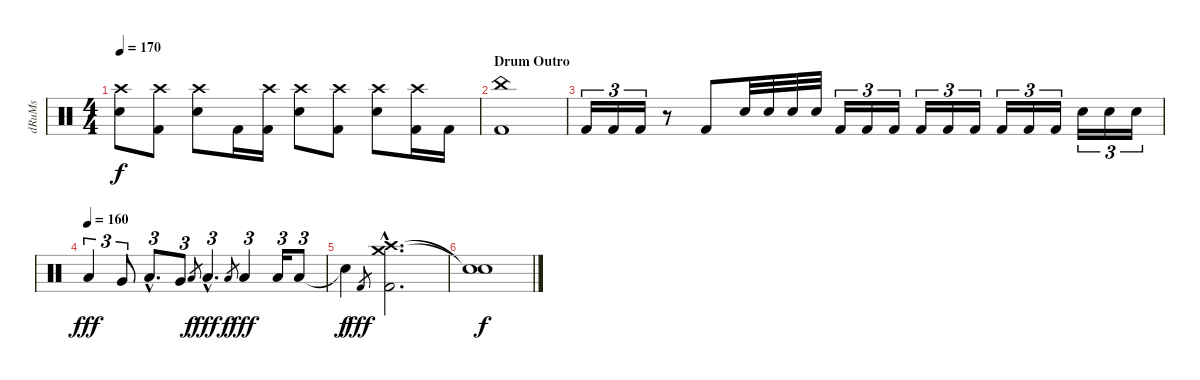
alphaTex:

\track ("dRuMs" "dRuMs") {instrument percussion}
\staff {score}
\articulation defaults
\ts (4 4)
\tempo 170
\clef neutral
\ks c
("Crash high (hit)" "Electric Snare (hit)").8{dy f} ("Crash high (hit)" "Kick (hit) 2").8 ("Crash high (hit)" "Electric Snare (hit)").8 "Kick (hit) 2".16 ("Crash high (hit)" "Kick (hit) 2").16 ("Crash high (hit)" "Electric Snare (hit)").8 ("Crash high (hit)" "Kick (hit) 2").8 ("Crash high (hit)" "Electric Snare (hit)").8 ("Crash high (hit)" "Kick (hit) 2").16 "Kick (hit) 2".16 |
\section ("" "Drum Outro")
("China (hit)" "Kick (hit) 2").1 |
"Kick (hit) 2".16{tu (3 2)} "Kick (hit) 2".16{tu (3 2)} "Kick (hit) 2".16{tu (3 2)} r.8 "Kick (hit) 2".8 "Electric Snare (hit)".32 "Electric Snare (hit)".32 "Electric Snare (hit)".32 "Electric Snare (hit)".32 "Kick (hit) 2".16{tu (3 2)} "Kick (hit) 2".16{tu (3 2)} "Kick (hit) 2".16{tu (3 2)} "Kick (hit) 2".16{tu (3 2)} "Kick (hit) 2".16{tu (3 2)} "Kick (hit) 2".16{tu (3 2)} "Kick (hit) 2".16{tu (3 2)} "Kick (hit) 2".16{tu (3 2)} "Kick (hit) 2".16{tu (3 2)} "Electric Snare (hit)".16{tu (3 2)} "Electric Snare (hit)".16{tu (3 2)} "Electric Snare (hit)".16{tu (3 2)} |
\tempo (160)
"Low Tom (hit)".4{tu (3 2) dy fff} "Very Low Tom (hit)".8{tu (3 2)} "Low Tom (hit)"{hac}.8{d tu (3 2)} "Very Low Tom (hit)".8{tu (3 2)} "Low Floor Tom (hit)".8{gr dy f} "Low Floor Tom (hit)"{hac}.4{d tu (3 2) dy fff} "Low Floor Tom (hit)".8{gr dy f} "Low Floor Tom (hit)".4{tu (3 2) dy fff} "Low Floor Tom (hit)".16{tu (3 2)} "Low Floor Tom (hit)".8{tu (3 2)} |
"Snare (hit)"{t}.4{dy f} "Kick (hit) 2".8{gr dy fff} ("Crash high (hit)"{hac} "Crash medium (hit)"{hac} "Kick (hit) 2"{hac}).2{d} |
("Snare (hit)"{t} "Snare (hit)"{t}).1{dy f}
